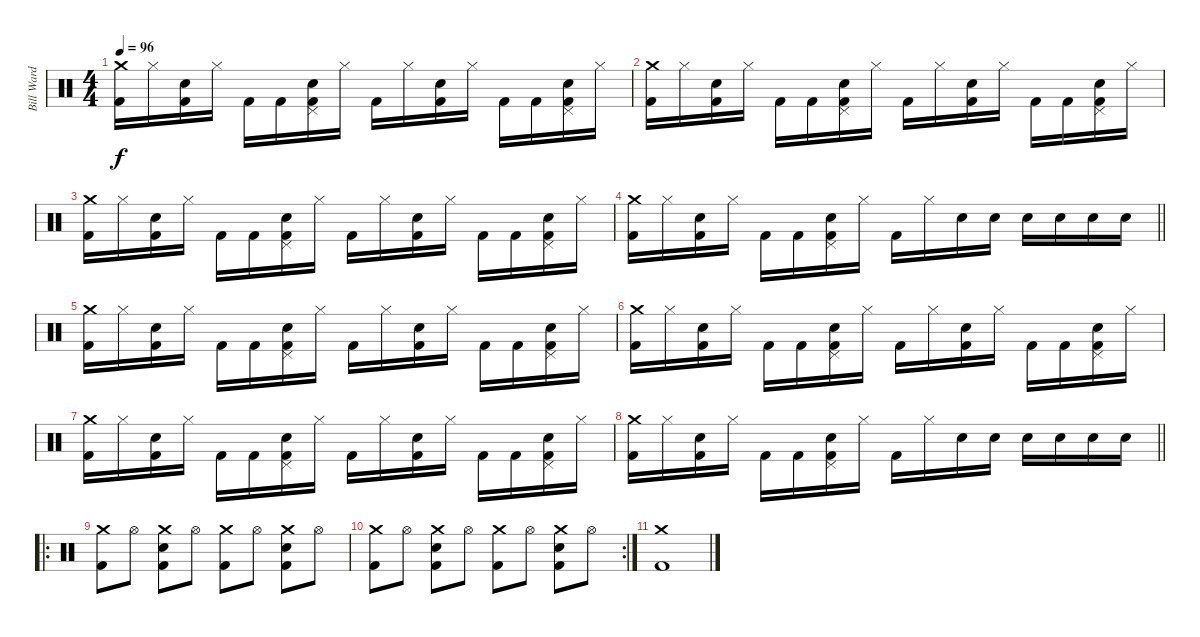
\track ("Bill Ward" "Bill Ward") {instrument percussion}
\staff {score}
\articulation defaults
\ts (4 4)
\tempo 96
\clef neutral
\ks c
("Crash medium (hit)" "Kick (hit) 2").16{dy f} "Hi-Hat (closed)".16 ("Snare (hit) 2" "Kick (hit) 2").16 "Hi-Hat (closed)".16 "Kick (hit) 2".16 "Kick (hit) 2".16 ("Pedal Hi-Hat (hit)" "Snare (hit) 2" "Kick (hit) 2").16 "Hi-Hat (closed)".16 "Kick (hit) 2".16 "Hi-Hat (closed)".16 ("Snare (hit) 2" "Kick (hit) 2").16 "Hi-Hat (closed)".16 "Kick (hit) 2".16 "Kick (hit) 2".16 ("Pedal Hi-Hat (hit)" "Snare (hit) 2" "Kick (hit) 2").16 "Hi-Hat (closed)".16 |
("Crash medium (hit)" "Kick (hit) 2").16 "Hi-Hat (closed)".16 ("Snare (hit) 2" "Kick (hit) 2").16 "Hi-Hat (closed)".16 "Kick (hit) 2".16 "Kick (hit) 2".16 ("Pedal Hi-Hat (hit)" "Snare (hit) 2" "Kick (hit) 2").16 "Hi-Hat (closed)".16 "Kick (hit) 2".16 "Hi-Hat (closed)".16 ("Snare (hit) 2" "Kick (hit) 2").16 "Hi-Hat (closed)".16 "Kick (hit) 2".16 "Kick (hit) 2".16 ("Pedal Hi-Hat (hit)" "Snare (hit) 2" "Kick (hit) 2").16 "Hi-Hat (closed)".16 |
("Crash medium (hit)" "Kick (hit) 2").16 "Hi-Hat (closed)".16 ("Snare (hit) 2" "Kick (hit) 2").16 "Hi-Hat (closed)".16 "Kick (hit) 2".16 "Kick (hit) 2".16 ("Pedal Hi-Hat (hit)" "Snare (hit) 2" "Kick (hit) 2").16 "Hi-Hat (closed)".16 "Kick (hit) 2".16 "Hi-Hat (closed)".16 ("Snare (hit) 2" "Kick (hit) 2").16 "Hi-Hat (closed)".16 "Kick (hit) 2".16 "Kick (hit) 2".16 ("Pedal Hi-Hat (hit)" "Snare (hit) 2" "Kick (hit) 2").16 "Hi-Hat (closed)".16 |
\barLineRight lightlight
("Crash medium (hit)" "Kick (hit) 2").16 "Hi-Hat (closed)".16 ("Snare (hit) 2" "Kick (hit) 2").16 "Hi-Hat (closed)".16 "Kick (hit) 2".16 "Kick (hit) 2".16 ("Pedal Hi-Hat (hit)" "Snare (hit) 2" "Kick (hit) 2").16 "Hi-Hat (closed)".16 "Kick (hit) 2".16 "Hi-Hat (closed)".16 "Snare (hit) 2".16 "Snare (hit) 2".16 "Snare (hit) 2".16 "Snare (hit) 2".16 "Snare (hit) 2".16 "Snare (hit) 2".16 |
("Crash medium (hit)" "Kick (hit) 2").16 "Hi-Hat (closed)".16 ("Snare (hit) 2" "Kick (hit) 2").16 "Hi-Hat (closed)".16 "Kick (hit) 2".16 "Kick (hit) 2".16 ("Pedal Hi-Hat (hit)" "Snare (hit) 2" "Kick (hit) 2").16 "Hi-Hat (closed)".16 "Kick (hit) 2".16 "Hi-Hat (closed)".16 ("Snare (hit) 2" "Kick (hit) 2").16 "Hi-Hat (closed)".16 "Kick (hit) 2".16 "Kick (hit) 2".16 ("Pedal Hi-Hat (hit)" "Snare (hit) 2" "Kick (hit) 2").16 "Hi-Hat (closed)".16 |
("Crash medium (hit)" "Kick (hit) 2").16 "Hi-Hat (closed)".16 ("Snare (hit) 2" "Kick (hit) 2").16 "Hi-Hat (closed)".16 "Kick (hit) 2".16 "Kick (hit) 2".16 ("Pedal Hi-Hat (hit)" "Snare (hit) 2" "Kick (hit) 2").16 "Hi-Hat (closed)".16 "Kick (hit) 2".16 "Hi-Hat (closed)".16 ("Snare (hit) 2" "Kick (hit) 2").16 "Hi-Hat (closed)".16 "Kick (hit) 2".16 "Kick (hit) 2".16 ("Pedal Hi-Hat (hit)" "Snare (hit) 2" "Kick (hit) 2").16 "Hi-Hat (closed)".16 |
("Crash medium (hit)" "Kick (hit) 2").16 "Hi-Hat (closed)".16 ("Snare (hit) 2" "Kick (hit) 2").16 "Hi-Hat (closed)".16 "Kick (hit) 2".16 "Kick (hit) 2".16 ("Pedal Hi-Hat (hit)" "Snare (hit) 2" "Kick (hit) 2").16 "Hi-Hat (closed)".16 "Kick (hit) 2".16 "Hi-Hat (closed)".16 ("Snare (hit) 2" "Kick (hit) 2").16 "Hi-Hat (closed)".16 "Kick (hit) 2".16 "Kick (hit) 2".16 ("Pedal Hi-Hat (hit)" "Snare (hit) 2" "Kick (hit) 2").16 "Hi-Hat (closed)".16 |
\barLineRight lightlight
("Crash medium (hit)" "Kick (hit) 2").16 "Hi-Hat (closed)".16 ("Snare (hit) 2" "Kick (hit) 2").16 "Hi-Hat (closed)".16 "Kick (hit) 2".16 "Kick (hit) 2".16 ("Pedal Hi-Hat (hit)" "Snare (hit) 2" "Kick (hit) 2").16 "Hi-Hat (closed)".16 "Kick (hit) 2".16 "Hi-Hat (closed)".16 "Snare (hit) 2".16 "Snare (hit) 2".16 "Snare (hit) 2".16 "Snare (hit) 2".16 "Snare (hit) 2".16 "Snare (hit) 2".16 |
\ro
("Crash medium (hit)" "Kick (hit) 2").8 "Hi-Hat (open)".8 ("Crash medium (hit)" "Snare (hit) 2" "Kick (hit) 2").8 "Hi-Hat (open)".8 ("Crash medium (hit)" "Kick (hit) 2").8 "Hi-Hat (open)".8 ("Crash medium (hit)" "Snare (hit) 2" "Kick (hit) 2").8 "Hi-Hat (open)".8 |
\rc 2
("Crash medium (hit)" "Kick (hit) 2").8 "Hi-Hat (open)".8 ("Crash medium (hit)" "Snare (hit) 2" "Kick (hit) 2").8 "Hi-Hat (open)".8 ("Crash medium (hit)" "Kick (hit) 2").8 "Hi-Hat (open)".8 ("Crash medium (hit)" "Snare (hit) 2" "Kick (hit) 2").8 "Hi-Hat (open)".8 |
("Crash medium (hit)" "Kick (hit) 2").1
